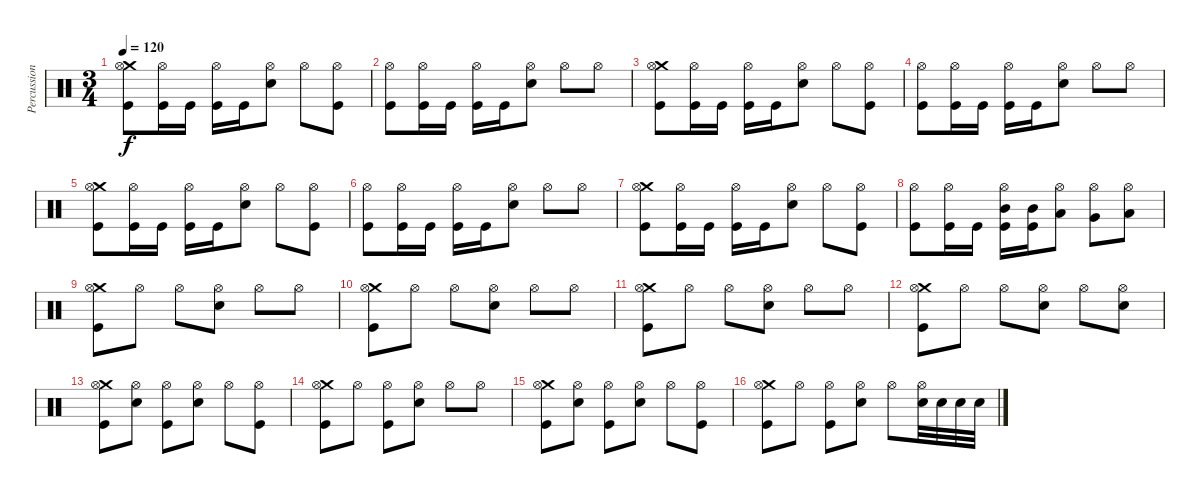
\track ("Percussion" "Percussion") {instrument percussion}
\staff {score}
\articulation defaults
\ts (3 4)
\tempo 120
\clef neutral
\ks c
("Crash medium (hit)" "Hi-Hat (open)" "Kick (hit)").8{dy f} ("Hi-Hat (open)" "Kick (hit)").16 "Kick (hit)".16 ("Hi-Hat (open)" "Kick (hit)").16 "Kick (hit)".16 ("Electric Snare (hit)" "Hi-Hat (open)").8 "Hi-Hat (open)".8 ("Hi-Hat (open)" "Kick (hit)").8 |
("Hi-Hat (open)" "Kick (hit)").8 ("Hi-Hat (open)" "Kick (hit)").16 "Kick (hit)".16 ("Hi-Hat (open)" "Kick (hit)").16 "Kick (hit)".16 ("Electric Snare (hit)" "Hi-Hat (open)").8 "Hi-Hat (open)".8 "Hi-Hat (open)".8 |
("Crash medium (hit)" "Hi-Hat (open)" "Kick (hit)").8 ("Hi-Hat (open)" "Kick (hit)").16 "Kick (hit)".16 ("Hi-Hat (open)" "Kick (hit)").16 "Kick (hit)".16 ("Electric Snare (hit)" "Hi-Hat (open)").8 "Hi-Hat (open)".8 ("Hi-Hat (open)" "Kick (hit)").8 |
("Hi-Hat (open)" "Kick (hit)").8 ("Hi-Hat (open)" "Kick (hit)").16 "Kick (hit)".16 ("Hi-Hat (open)" "Kick (hit)").16 "Kick (hit)".16 ("Electric Snare (hit)" "Hi-Hat (open)").8 "Hi-Hat (open)".8 "Hi-Hat (open)".8 |
("Crash medium (hit)" "Hi-Hat (open)" "Kick (hit)").8 ("Hi-Hat (open)" "Kick (hit)").16 "Kick (hit)".16 ("Hi-Hat (open)" "Kick (hit)").16 "Kick (hit)".16 ("Electric Snare (hit)" "Hi-Hat (open)").8 "Hi-Hat (open)".8 ("Hi-Hat (open)" "Kick (hit)").8 |
("Hi-Hat (open)" "Kick (hit)").8 ("Hi-Hat (open)" "Kick (hit)").16 "Kick (hit)".16 ("Hi-Hat (open)" "Kick (hit)").16 "Kick (hit)".16 ("Electric Snare (hit)" "Hi-Hat (open)").8 "Hi-Hat (open)".8 "Hi-Hat (open)".8 |
("Crash medium (hit)" "Hi-Hat (open)" "Kick (hit)").8 ("Hi-Hat (open)" "Kick (hit)").16 "Kick (hit)".16 ("Hi-Hat (open)" "Kick (hit)").16 "Kick (hit)".16 ("Electric Snare (hit)" "Hi-Hat (open)").8 "Hi-Hat (open)".8 ("Hi-Hat (open)" "Kick (hit)").8 |
("Hi-Hat (open)" "Kick (hit)").8 ("Hi-Hat (open)" "Kick (hit)").16 "Kick (hit)".16 ("Mid Tom (hit)" "Hi-Hat (open)" "Kick (hit)").16 ("Mid Tom (hit)" "Kick (hit)").16 ("Low Tom (hit)" "Hi-Hat (open)").8 ("Very Low Tom (hit)" "Hi-Hat (open)").8 ("Low Floor Tom (hit)" "Hi-Hat (open)").8 |
("Crash medium (hit)" "Hi-Hat (open)" "Kick (hit)").8 "Hi-Hat (open)".8 "Hi-Hat (open)".8 ("Electric Snare (hit)" "Hi-Hat (open)").8 "Hi-Hat (open)".8 "Hi-Hat (open)".8 |
("Crash medium (hit)" "Hi-Hat (open)" "Kick (hit)").8 "Hi-Hat (open)".8 "Hi-Hat (open)".8 ("Electric Snare (hit)" "Hi-Hat (open)").8 "Hi-Hat (open)".8 "Hi-Hat (open)".8 |
("Crash medium (hit)" "Hi-Hat (open)" "Kick (hit)").8 "Hi-Hat (open)".8 "Hi-Hat (open)".8 ("Electric Snare (hit)" "Hi-Hat (open)").8 "Hi-Hat (open)".8 "Hi-Hat (open)".8 |
("Crash medium (hit)" "Hi-Hat (open)" "Kick (hit)").8 "Hi-Hat (open)".8 "Hi-Hat (open)".8 ("Electric Snare (hit)" "Hi-Hat (open)").8 "Hi-Hat (open)".8 ("Electric Snare (hit)" "Hi-Hat (open)").8 |
("Crash medium (hit)" "Hi-Hat (open)" "Kick (hit)").8 ("Hi-Hat (open)" "Electric Snare (hit)").8 ("Hi-Hat (open)" "Kick (hit)").8 ("Hi-Hat (open)" "Electric Snare (hit)").8 "Hi-Hat (open)".8 ("Hi-Hat (open)" "Kick (hit)").8 |
("Crash medium (hit)" "Hi-Hat (open)" "Kick (hit)").8 "Hi-Hat (open)".8 ("Hi-Hat (open)" "Kick (hit)").8 ("Hi-Hat (open)" "Electric Snare (hit)").8 "Hi-Hat (open)".8 "Hi-Hat (open)".8 |
("Crash medium (hit)" "Hi-Hat (open)" "Kick (hit)").8 ("Hi-Hat (open)" "Electric Snare (hit)").8 ("Hi-Hat (open)" "Kick (hit)").8 ("Hi-Hat (open)" "Electric Snare (hit)").8 "Hi-Hat (open)".8 ("Hi-Hat (open)" "Kick (hit)").8 |
("Crash medium (hit)" "Hi-Hat (open)" "Kick (hit)").8 "Hi-Hat (open)".8 ("Hi-Hat (open)" "Kick (hit)").8 ("Hi-Hat (open)" "Electric Snare (hit)").8 "Hi-Hat (open)".8 ("Hi-Hat (open)" "Electric Snare (hit)").32 "Electric Snare (hit)".32 "Electric Snare (hit)".32 "Electric Snare (hit)".32
